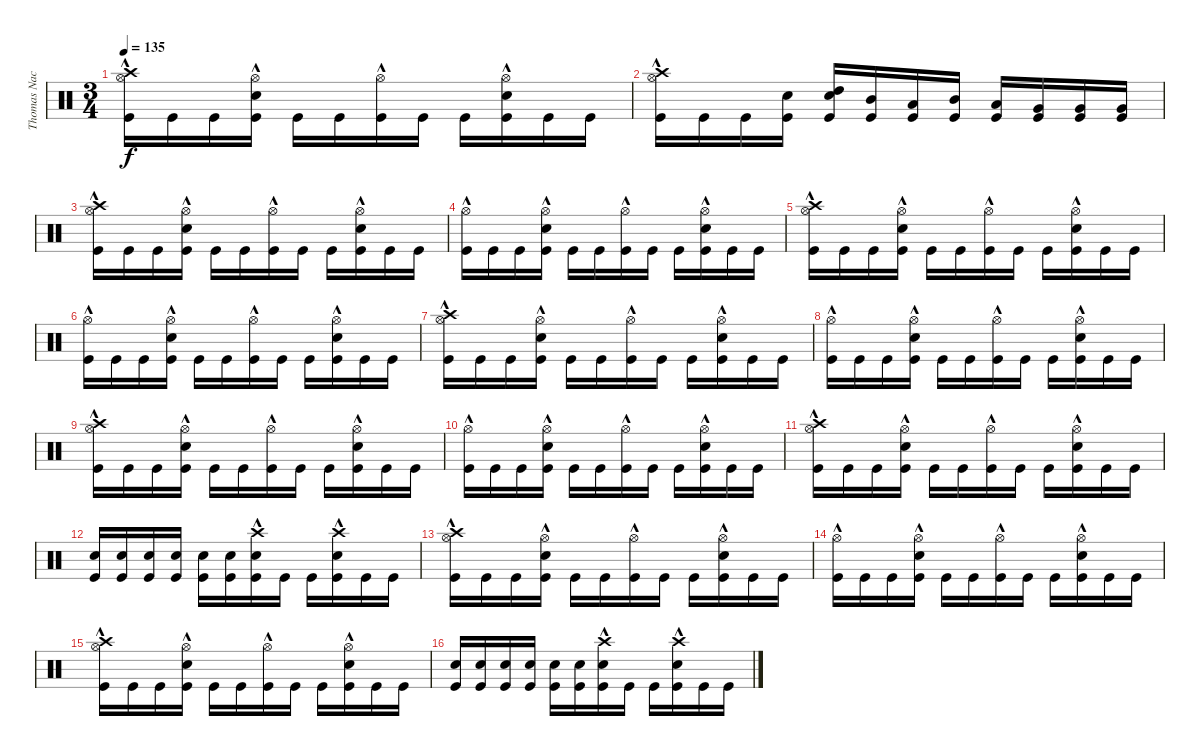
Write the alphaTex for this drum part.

\track ("Thomas Nack" "Thomas Nac") {instrument percussion}
\staff {score}
\articulation defaults
\ts (3 4)
\tempo 135
\clef neutral
\ks c
("Crash high (hit)" "Hi-Hat (open)"{hac} "Kick (hit)").16{dy f} "Kick (hit)".16 "Kick (hit)".16 ("Hi-Hat (open)"{hac} "Kick (hit)" "Electric Snare (hit)").16 "Kick (hit)".16 "Kick (hit)".16 ("Hi-Hat (open)"{hac} "Kick (hit)").16 "Kick (hit)".16 "Kick (hit)".16 ("Hi-Hat (open)"{hac} "Kick (hit)" "Electric Snare (hit)").16 "Kick (hit)".16 "Kick (hit)".16 |
("Crash high (hit)" "Hi-Hat (open)"{hac} "Kick (hit)").16 "Kick (hit)".16 "Kick (hit)".16 ("Electric Snare (hit)" "Kick (hit)").16 ("Electric Snare (hit)" "High Tom (hit)" "Kick (hit)").16 ("Mid Tom (hit)" "Kick (hit)").16 ("Low Tom (hit)" "Kick (hit)").16 ("Mid Tom (hit)" "Kick (hit)").16 ("Low Tom (hit)" "Kick (hit)").16 ("Very Low Tom (hit)" "Kick (hit)").16 ("Very Low Tom (hit)" "Kick (hit)").16 ("Very Low Tom (hit)" "Kick (hit)").16 |
("Crash high (hit)" "Hi-Hat (open)"{hac} "Kick (hit)").16 "Kick (hit)".16 "Kick (hit)".16 ("Hi-Hat (open)"{hac} "Kick (hit)" "Electric Snare (hit)").16 "Kick (hit)".16 "Kick (hit)".16 ("Hi-Hat (open)"{hac} "Kick (hit)").16 "Kick (hit)".16 "Kick (hit)".16 ("Hi-Hat (open)"{hac} "Kick (hit)" "Electric Snare (hit)").16 "Kick (hit)".16 "Kick (hit)".16 |
("Hi-Hat (open)"{hac} "Kick (hit)").16 "Kick (hit)".16 "Kick (hit)".16 ("Hi-Hat (open)"{hac} "Kick (hit)" "Electric Snare (hit)").16 "Kick (hit)".16 "Kick (hit)".16 ("Hi-Hat (open)"{hac} "Kick (hit)").16 "Kick (hit)".16 "Kick (hit)".16 ("Hi-Hat (open)"{hac} "Kick (hit)" "Electric Snare (hit)").16 "Kick (hit)".16 "Kick (hit)".16 |
("Crash high (hit)" "Hi-Hat (open)"{hac} "Kick (hit)").16 "Kick (hit)".16 "Kick (hit)".16 ("Hi-Hat (open)"{hac} "Kick (hit)" "Electric Snare (hit)").16 "Kick (hit)".16 "Kick (hit)".16 ("Hi-Hat (open)"{hac} "Kick (hit)").16 "Kick (hit)".16 "Kick (hit)".16 ("Hi-Hat (open)"{hac} "Kick (hit)" "Electric Snare (hit)").16 "Kick (hit)".16 "Kick (hit)".16 |
("Hi-Hat (open)"{hac} "Kick (hit)").16 "Kick (hit)".16 "Kick (hit)".16 ("Hi-Hat (open)"{hac} "Kick (hit)" "Electric Snare (hit)").16 "Kick (hit)".16 "Kick (hit)".16 ("Hi-Hat (open)"{hac} "Kick (hit)").16 "Kick (hit)".16 "Kick (hit)".16 ("Hi-Hat (open)"{hac} "Kick (hit)" "Electric Snare (hit)").16 "Kick (hit)".16 "Kick (hit)".16 |
("Crash high (hit)" "Hi-Hat (open)"{hac} "Kick (hit)").16 "Kick (hit)".16 "Kick (hit)".16 ("Hi-Hat (open)"{hac} "Kick (hit)" "Electric Snare (hit)").16 "Kick (hit)".16 "Kick (hit)".16 ("Hi-Hat (open)"{hac} "Kick (hit)").16 "Kick (hit)".16 "Kick (hit)".16 ("Hi-Hat (open)"{hac} "Kick (hit)" "Electric Snare (hit)").16 "Kick (hit)".16 "Kick (hit)".16 |
("Hi-Hat (open)"{hac} "Kick (hit)").16 "Kick (hit)".16 "Kick (hit)".16 ("Hi-Hat (open)"{hac} "Kick (hit)" "Electric Snare (hit)").16 "Kick (hit)".16 "Kick (hit)".16 ("Hi-Hat (open)"{hac} "Kick (hit)").16 "Kick (hit)".16 "Kick (hit)".16 ("Hi-Hat (open)"{hac} "Kick (hit)" "Electric Snare (hit)").16 "Kick (hit)".16 "Kick (hit)".16 |
("Crash high (hit)" "Hi-Hat (open)"{hac} "Kick (hit)").16 "Kick (hit)".16 "Kick (hit)".16 ("Hi-Hat (open)"{hac} "Kick (hit)" "Electric Snare (hit)").16 "Kick (hit)".16 "Kick (hit)".16 ("Hi-Hat (open)"{hac} "Kick (hit)").16 "Kick (hit)".16 "Kick (hit)".16 ("Hi-Hat (open)"{hac} "Kick (hit)" "Electric Snare (hit)").16 "Kick (hit)".16 "Kick (hit)".16 |
("Hi-Hat (open)"{hac} "Kick (hit)").16 "Kick (hit)".16 "Kick (hit)".16 ("Hi-Hat (open)"{hac} "Kick (hit)" "Electric Snare (hit)").16 "Kick (hit)".16 "Kick (hit)".16 ("Hi-Hat (open)"{hac} "Kick (hit)").16 "Kick (hit)".16 "Kick (hit)".16 ("Hi-Hat (open)"{hac} "Kick (hit)" "Electric Snare (hit)").16 "Kick (hit)".16 "Kick (hit)".16 |
("Crash high (hit)" "Hi-Hat (open)"{hac} "Kick (hit)").16 "Kick (hit)".16 "Kick (hit)".16 ("Hi-Hat (open)"{hac} "Kick (hit)" "Electric Snare (hit)").16 "Kick (hit)".16 "Kick (hit)".16 ("Hi-Hat (open)"{hac} "Kick (hit)").16 "Kick (hit)".16 "Kick (hit)".16 ("Hi-Hat (open)"{hac} "Kick (hit)" "Electric Snare (hit)").16 "Kick (hit)".16 "Kick (hit)".16 |
("Kick (hit)" "Electric Snare (hit)").16 ("Kick (hit)" "Electric Snare (hit)").16 ("Kick (hit)" "Electric Snare (hit)").16 ("Kick (hit)" "Electric Snare (hit)").16 ("Kick (hit)" "Electric Snare (hit)").16 ("Electric Snare (hit)" "Kick (hit)").16 ("Crash high (hit)"{hac} "Kick (hit)" "Electric Snare (hit)").16 "Kick (hit)".16 "Kick (hit)".16 ("Crash high (hit)"{hac} "Kick (hit)" "Electric Snare (hit)").16 "Kick (hit)".16 "Kick (hit)".16 |
("Crash high (hit)" "Hi-Hat (open)"{hac} "Kick (hit)").16 "Kick (hit)".16 "Kick (hit)".16 ("Hi-Hat (open)"{hac} "Kick (hit)" "Electric Snare (hit)").16 "Kick (hit)".16 "Kick (hit)".16 ("Hi-Hat (open)"{hac} "Kick (hit)").16 "Kick (hit)".16 "Kick (hit)".16 ("Hi-Hat (open)"{hac} "Kick (hit)" "Electric Snare (hit)").16 "Kick (hit)".16 "Kick (hit)".16 |
("Hi-Hat (open)"{hac} "Kick (hit)").16 "Kick (hit)".16 "Kick (hit)".16 ("Hi-Hat (open)"{hac} "Kick (hit)" "Electric Snare (hit)").16 "Kick (hit)".16 "Kick (hit)".16 ("Hi-Hat (open)"{hac} "Kick (hit)").16 "Kick (hit)".16 "Kick (hit)".16 ("Hi-Hat (open)"{hac} "Kick (hit)" "Electric Snare (hit)").16 "Kick (hit)".16 "Kick (hit)".16 |
("Crash high (hit)" "Hi-Hat (open)"{hac} "Kick (hit)").16 "Kick (hit)".16 "Kick (hit)".16 ("Hi-Hat (open)"{hac} "Kick (hit)" "Electric Snare (hit)").16 "Kick (hit)".16 "Kick (hit)".16 ("Hi-Hat (open)"{hac} "Kick (hit)").16 "Kick (hit)".16 "Kick (hit)".16 ("Hi-Hat (open)"{hac} "Kick (hit)" "Electric Snare (hit)").16 "Kick (hit)".16 "Kick (hit)".16 |
("Kick (hit)" "Electric Snare (hit)").16 ("Kick (hit)" "Electric Snare (hit)").16 ("Kick (hit)" "Electric Snare (hit)").16 ("Kick (hit)" "Electric Snare (hit)").16 ("Kick (hit)" "Electric Snare (hit)").16 ("Electric Snare (hit)" "Kick (hit)").16 ("Crash high (hit)"{hac} "Kick (hit)" "Electric Snare (hit)").16 "Kick (hit)".16 "Kick (hit)".16 ("Crash high (hit)"{hac} "Kick (hit)" "Electric Snare (hit)").16 "Kick (hit)".16 "Kick (hit)".16
